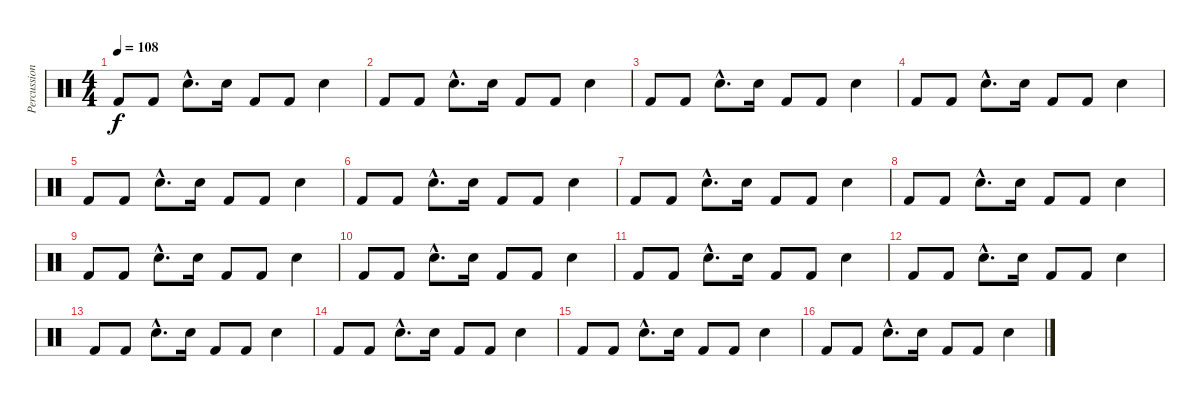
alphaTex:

\track ("Percussions" "Percussion") {instrument percussion}
\staff {score}
\articulation defaults
\ts (4 4)
\tempo 108
\clef neutral
\ks c "Kick (hit) 2".8{dy f} "Kick (hit) 2".8 "Electric Snare (hit)"{hac}.8{d} "Electric Snare (hit)".16 "Kick (hit) 2".8 "Kick (hit) 2".8 "Electric Snare (hit)".4
|
"Kick (hit) 2".8 "Kick (hit) 2".8 "Electric Snare (hit)"{hac}.8{d} "Electric Snare (hit)".16 "Kick (hit) 2".8 "Kick (hit) 2".8 "Electric Snare (hit)".4 |
"Kick (hit) 2".8 "Kick (hit) 2".8 "Electric Snare (hit)"{hac}.8{d} "Electric Snare (hit)".16 "Kick (hit) 2".8 "Kick (hit) 2".8 "Electric Snare (hit)".4 |
"Kick (hit) 2".8 "Kick (hit) 2".8 "Electric Snare (hit)"{hac}.8{d} "Electric Snare (hit)".16 "Kick (hit) 2".8 "Kick (hit) 2".8 "Electric Snare (hit)".4 |
"Kick (hit) 2".8 "Kick (hit) 2".8 "Electric Snare (hit)"{hac}.8{d} "Electric Snare (hit)".16 "Kick (hit) 2".8 "Kick (hit) 2".8 "Electric Snare (hit)".4 |
"Kick (hit) 2".8 "Kick (hit) 2".8 "Electric Snare (hit)"{hac}.8{d} "Electric Snare (hit)".16 "Kick (hit) 2".8 "Kick (hit) 2".8 "Electric Snare (hit)".4 |
"Kick (hit) 2".8 "Kick (hit) 2".8 "Electric Snare (hit)"{hac}.8{d} "Electric Snare (hit)".16 "Kick (hit) 2".8 "Kick (hit) 2".8 "Electric Snare (hit)".4 |
"Kick (hit) 2".8 "Kick (hit) 2".8 "Electric Snare (hit)"{hac}.8{d} "Electric Snare (hit)".16 "Kick (hit) 2".8 "Kick (hit) 2".8 "Electric Snare (hit)".4 |
"Kick (hit) 2".8 "Kick (hit) 2".8 "Electric Snare (hit)"{hac}.8{d} "Electric Snare (hit)".16 "Kick (hit) 2".8 "Kick (hit) 2".8 "Electric Snare (hit)".4 |
"Kick (hit) 2".8 "Kick (hit) 2".8 "Electric Snare (hit)"{hac}.8{d} "Electric Snare (hit)".16 "Kick (hit) 2".8 "Kick (hit) 2".8 "Electric Snare (hit)".4 |
"Kick (hit) 2".8 "Kick (hit) 2".8 "Electric Snare (hit)"{hac}.8{d} "Electric Snare (hit)".16 "Kick (hit) 2".8 "Kick (hit) 2".8 "Electric Snare (hit)".4 |
"Kick (hit) 2".8 "Kick (hit) 2".8 "Electric Snare (hit)"{hac}.8{d} "Electric Snare (hit)".16 "Kick (hit) 2".8 "Kick (hit) 2".8 "Electric Snare (hit)".4 |
"Kick (hit) 2".8 "Kick (hit) 2".8 "Electric Snare (hit)"{hac}.8{d} "Electric Snare (hit)".16 "Kick (hit) 2".8 "Kick (hit) 2".8 "Electric Snare (hit)".4 |
"Kick (hit) 2".8 "Kick (hit) 2".8 "Electric Snare (hit)"{hac}.8{d} "Electric Snare (hit)".16 "Kick (hit) 2".8 "Kick (hit) 2".8 "Electric Snare (hit)".4 |
"Kick (hit) 2".8 "Kick (hit) 2".8 "Electric Snare (hit)"{hac}.8{d} "Electric Snare (hit)".16 "Kick (hit) 2".8 "Kick (hit) 2".8 "Electric Snare (hit)".4 |
"Kick (hit) 2".8 "Kick (hit) 2".8 "Electric Snare (hit)"{hac}.8{d} "Electric Snare (hit)".16 "Kick (hit) 2".8 "Kick (hit) 2".8 "Electric Snare (hit)".4
